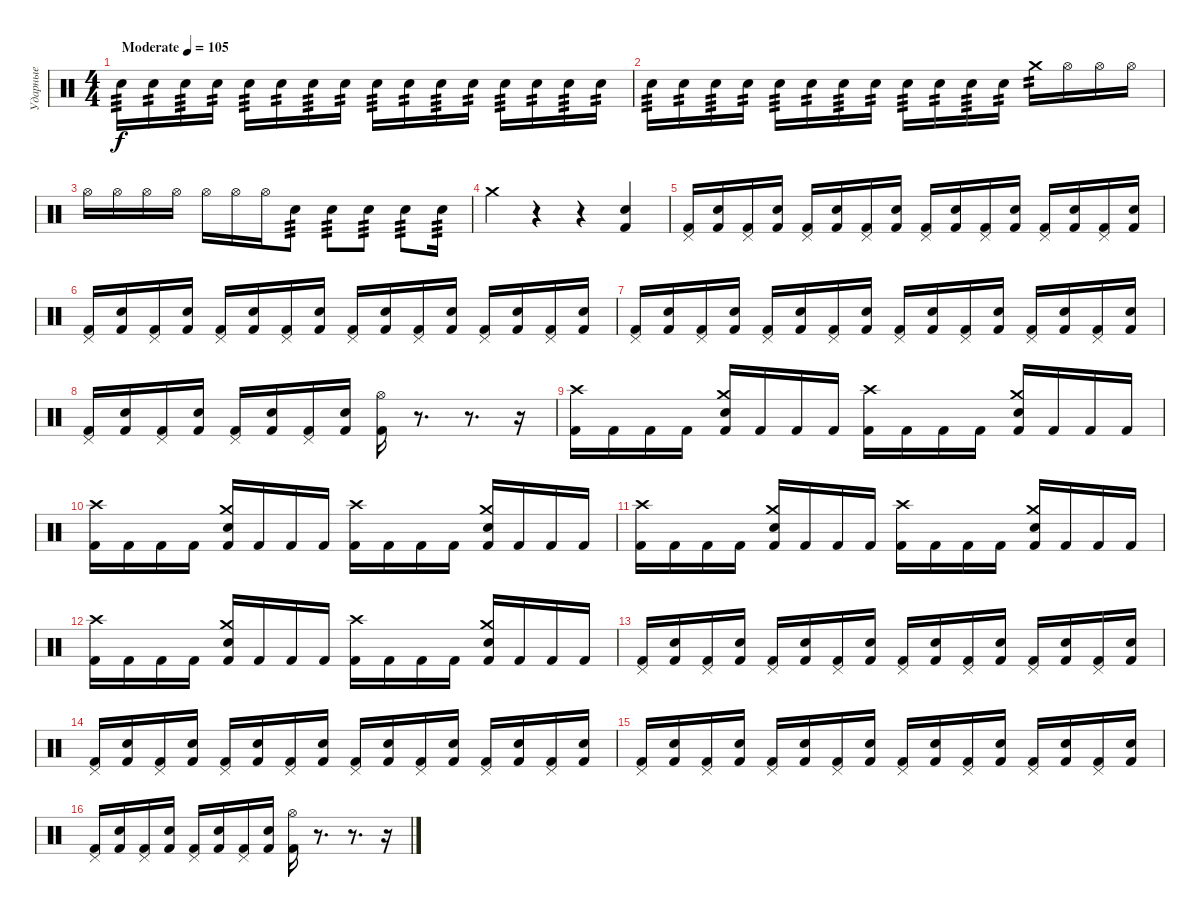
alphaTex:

\track ("Ударные" "Ударные") {instrument percussion}
\staff {score}
\articulation defaults
\ts (4 4)
\tempo (105 "Moderate")
\clef neutral
\ks c "Electric Snare (hit)".16{tp 3 dy f} "Electric Snare (hit)".16{tp 2} "Electric Snare (hit)".16{tp 3} "Electric Snare (hit)".16{tp 2} "Electric Snare (hit)".16{tp 3} "Electric Snare (hit)".16{tp 2} "Electric Snare (hit)".16{tp 3} "Electric Snare (hit)".16{tp 2} "Electric Snare (hit)".16{tp 3} "Electric Snare (hit)".16{tp 2} "Electric Snare (hit)".16{tp 3} "Electric Snare (hit)".16{tp 2} "Electric Snare (hit)".16{tp 3} "Electric Snare (hit)".16{tp 2} "Electric Snare (hit)".16{tp 3} "Electric Snare (hit)".16{tp 2}
|
"Electric Snare (hit)".16{tp 3} "Electric Snare (hit)".16{tp 2} "Electric Snare (hit)".16{tp 3} "Electric Snare (hit)".16{tp 2} "Electric Snare (hit)".16{tp 3} "Electric Snare (hit)".16{tp 2} "Electric Snare (hit)".16{tp 3} "Electric Snare (hit)".16{tp 2} "Electric Snare (hit)".16{tp 3} "Electric Snare (hit)".16{tp 2} "Electric Snare (hit)".16{tp 3} "Electric Snare (hit)".16{tp 2} "Crash medium (hit)".16{tp 2} "Hi-Hat (open)".16 "Hi-Hat (open)".16 "Hi-Hat (open)".16 |
"Hi-Hat (open)".16 "Hi-Hat (open)".16 "Hi-Hat (open)".16 "Hi-Hat (open)".16 "Hi-Hat (open)".16 "Hi-Hat (open)".16 "Hi-Hat (open)".16 "Electric Snare (hit)".8{tp 3} "Electric Snare (hit)".8{tp 3} "Electric Snare (hit)".8{tp 3} "Electric Snare (hit)".8{tp 3} "Electric Snare (hit)".16{tp 3} |
"Crash medium (hit)".4 r.4 r.4 ("Kick (hit) 2" "Electric Snare (hit)").4 |
("Pedal Hi-Hat (hit)" "Kick (hit) 2").16 ("Electric Snare (hit)" "Kick (hit) 2").16 ("Pedal Hi-Hat (hit)" "Kick (hit) 2").16 ("Electric Snare (hit)" "Kick (hit) 2").16 ("Pedal Hi-Hat (hit)" "Kick (hit) 2").16 ("Electric Snare (hit)" "Kick (hit) 2").16 ("Pedal Hi-Hat (hit)" "Kick (hit) 2").16 ("Electric Snare (hit)" "Kick (hit) 2").16 ("Pedal Hi-Hat (hit)" "Kick (hit) 2").16 ("Electric Snare (hit)" "Kick (hit) 2").16 ("Pedal Hi-Hat (hit)" "Kick (hit) 2").16 ("Electric Snare (hit)" "Kick (hit) 2").16 ("Pedal Hi-Hat (hit)" "Kick (hit) 2").16 ("Electric Snare (hit)" "Kick (hit) 2").16 ("Pedal Hi-Hat (hit)" "Kick (hit) 2").16 ("Electric Snare (hit)" "Kick (hit) 2").16 |
("Pedal Hi-Hat (hit)" "Kick (hit) 2").16 ("Electric Snare (hit)" "Kick (hit) 2").16 ("Pedal Hi-Hat (hit)" "Kick (hit) 2").16 ("Electric Snare (hit)" "Kick (hit) 2").16 ("Pedal Hi-Hat (hit)" "Kick (hit) 2").16 ("Electric Snare (hit)" "Kick (hit) 2").16 ("Pedal Hi-Hat (hit)" "Kick (hit) 2").16 ("Electric Snare (hit)" "Kick (hit) 2").16 ("Pedal Hi-Hat (hit)" "Kick (hit) 2").16 ("Electric Snare (hit)" "Kick (hit) 2").16 ("Pedal Hi-Hat (hit)" "Kick (hit) 2").16 ("Electric Snare (hit)" "Kick (hit) 2").16 ("Pedal Hi-Hat (hit)" "Kick (hit) 2").16 ("Electric Snare (hit)" "Kick (hit) 2").16 ("Pedal Hi-Hat (hit)" "Kick (hit) 2").16 ("Electric Snare (hit)" "Kick (hit) 2").16 |
("Pedal Hi-Hat (hit)" "Kick (hit) 2").16 ("Electric Snare (hit)" "Kick (hit) 2").16 ("Pedal Hi-Hat (hit)" "Kick (hit) 2").16 ("Electric Snare (hit)" "Kick (hit) 2").16 ("Pedal Hi-Hat (hit)" "Kick (hit) 2").16 ("Electric Snare (hit)" "Kick (hit) 2").16 ("Pedal Hi-Hat (hit)" "Kick (hit) 2").16 ("Electric Snare (hit)" "Kick (hit) 2").16 ("Pedal Hi-Hat (hit)" "Kick (hit) 2").16 ("Electric Snare (hit)" "Kick (hit) 2").16 ("Pedal Hi-Hat (hit)" "Kick (hit) 2").16 ("Electric Snare (hit)" "Kick (hit) 2").16 ("Pedal Hi-Hat (hit)" "Kick (hit) 2").16 ("Electric Snare (hit)" "Kick (hit) 2").16 ("Pedal Hi-Hat (hit)" "Kick (hit) 2").16 ("Electric Snare (hit)" "Kick (hit) 2").16 |
("Pedal Hi-Hat (hit)" "Kick (hit) 2").16 ("Electric Snare (hit)" "Kick (hit) 2").16 ("Pedal Hi-Hat (hit)" "Kick (hit) 2").16 ("Electric Snare (hit)" "Kick (hit) 2").16 ("Pedal Hi-Hat (hit)" "Kick (hit) 2").16 ("Electric Snare (hit)" "Kick (hit) 2").16 ("Pedal Hi-Hat (hit)" "Kick (hit) 2").16 ("Electric Snare (hit)" "Kick (hit) 2").16 ("Hi-Hat (open)" "Kick (hit) 2").16 r.8{d} r.8{d} r.16 |
("Crash high (hit)" "Kick (hit) 2").16 "Kick (hit) 2".16 "Kick (hit) 2".16 "Kick (hit) 2".16 ("Crash medium (hit)" "Electric Snare (hit)" "Kick (hit) 2").16 "Kick (hit) 2".16 "Kick (hit) 2".16 "Kick (hit) 2".16 ("Crash high (hit)" "Kick (hit) 2").16 "Kick (hit) 2".16 "Kick (hit) 2".16 "Kick (hit) 2".16 ("Crash medium (hit)" "Electric Snare (hit)" "Kick (hit) 2").16 "Kick (hit) 2".16 "Kick (hit) 2".16 "Kick (hit) 2".16 |
("Crash high (hit)" "Kick (hit) 2").16 "Kick (hit) 2".16 "Kick (hit) 2".16 "Kick (hit) 2".16 ("Crash medium (hit)" "Electric Snare (hit)" "Kick (hit) 2").16 "Kick (hit) 2".16 "Kick (hit) 2".16 "Kick (hit) 2".16 ("Crash high (hit)" "Kick (hit) 2").16 "Kick (hit) 2".16 "Kick (hit) 2".16 "Kick (hit) 2".16 ("Crash medium (hit)" "Electric Snare (hit)" "Kick (hit) 2").16 "Kick (hit) 2".16 "Kick (hit) 2".16 "Kick (hit) 2".16 |
("Crash high (hit)" "Kick (hit) 2").16 "Kick (hit) 2".16 "Kick (hit) 2".16 "Kick (hit) 2".16 ("Crash medium (hit)" "Electric Snare (hit)" "Kick (hit) 2").16 "Kick (hit) 2".16 "Kick (hit) 2".16 "Kick (hit) 2".16 ("Crash high (hit)" "Kick (hit) 2").16 "Kick (hit) 2".16 "Kick (hit) 2".16 "Kick (hit) 2".16 ("Crash medium (hit)" "Electric Snare (hit)" "Kick (hit) 2").16 "Kick (hit) 2".16 "Kick (hit) 2".16 "Kick (hit) 2".16 |
("Crash high (hit)" "Kick (hit) 2").16 "Kick (hit) 2".16 "Kick (hit) 2".16 "Kick (hit) 2".16 ("Crash medium (hit)" "Electric Snare (hit)" "Kick (hit) 2").16 "Kick (hit) 2".16 "Kick (hit) 2".16 "Kick (hit) 2".16 ("Crash high (hit)" "Kick (hit) 2").16 "Kick (hit) 2".16 "Kick (hit) 2".16 "Kick (hit) 2".16 ("Crash medium (hit)" "Electric Snare (hit)" "Kick (hit) 2").16 "Kick (hit) 2".16 "Kick (hit) 2".16 "Kick (hit) 2".16 |
("Pedal Hi-Hat (hit)" "Kick (hit) 2").16 ("Electric Snare (hit)" "Kick (hit) 2").16 ("Pedal Hi-Hat (hit)" "Kick (hit) 2").16 ("Electric Snare (hit)" "Kick (hit) 2").16 ("Pedal Hi-Hat (hit)" "Kick (hit) 2").16 ("Electric Snare (hit)" "Kick (hit) 2").16 ("Pedal Hi-Hat (hit)" "Kick (hit) 2").16 ("Electric Snare (hit)" "Kick (hit) 2").16 ("Pedal Hi-Hat (hit)" "Kick (hit) 2").16 ("Electric Snare (hit)" "Kick (hit) 2").16 ("Pedal Hi-Hat (hit)" "Kick (hit) 2").16 ("Electric Snare (hit)" "Kick (hit) 2").16 ("Pedal Hi-Hat (hit)" "Kick (hit) 2").16 ("Electric Snare (hit)" "Kick (hit) 2").16 ("Pedal Hi-Hat (hit)" "Kick (hit) 2").16 ("Electric Snare (hit)" "Kick (hit) 2").16 |
("Pedal Hi-Hat (hit)" "Kick (hit) 2").16 ("Electric Snare (hit)" "Kick (hit) 2").16 ("Pedal Hi-Hat (hit)" "Kick (hit) 2").16 ("Electric Snare (hit)" "Kick (hit) 2").16 ("Pedal Hi-Hat (hit)" "Kick (hit) 2").16 ("Electric Snare (hit)" "Kick (hit) 2").16 ("Pedal Hi-Hat (hit)" "Kick (hit) 2").16 ("Electric Snare (hit)" "Kick (hit) 2").16 ("Pedal Hi-Hat (hit)" "Kick (hit) 2").16 ("Electric Snare (hit)" "Kick (hit) 2").16 ("Pedal Hi-Hat (hit)" "Kick (hit) 2").16 ("Electric Snare (hit)" "Kick (hit) 2").16 ("Pedal Hi-Hat (hit)" "Kick (hit) 2").16 ("Electric Snare (hit)" "Kick (hit) 2").16 ("Pedal Hi-Hat (hit)" "Kick (hit) 2").16 ("Electric Snare (hit)" "Kick (hit) 2").16 |
("Pedal Hi-Hat (hit)" "Kick (hit) 2").16 ("Electric Snare (hit)" "Kick (hit) 2").16 ("Pedal Hi-Hat (hit)" "Kick (hit) 2").16 ("Electric Snare (hit)" "Kick (hit) 2").16 ("Pedal Hi-Hat (hit)" "Kick (hit) 2").16 ("Electric Snare (hit)" "Kick (hit) 2").16 ("Pedal Hi-Hat (hit)" "Kick (hit) 2").16 ("Electric Snare (hit)" "Kick (hit) 2").16 ("Pedal Hi-Hat (hit)" "Kick (hit) 2").16 ("Electric Snare (hit)" "Kick (hit) 2").16 ("Pedal Hi-Hat (hit)" "Kick (hit) 2").16 ("Electric Snare (hit)" "Kick (hit) 2").16 ("Pedal Hi-Hat (hit)" "Kick (hit) 2").16 ("Electric Snare (hit)" "Kick (hit) 2").16 ("Pedal Hi-Hat (hit)" "Kick (hit) 2").16 ("Electric Snare (hit)" "Kick (hit) 2").16 |
("Pedal Hi-Hat (hit)" "Kick (hit) 2").16 ("Electric Snare (hit)" "Kick (hit) 2").16 ("Pedal Hi-Hat (hit)" "Kick (hit) 2").16 ("Electric Snare (hit)" "Kick (hit) 2").16 ("Pedal Hi-Hat (hit)" "Kick (hit) 2").16 ("Electric Snare (hit)" "Kick (hit) 2").16 ("Pedal Hi-Hat (hit)" "Kick (hit) 2").16 ("Electric Snare (hit)" "Kick (hit) 2").16 ("Hi-Hat (open)" "Kick (hit) 2").16 r.8{d} r.8{d} r.16
